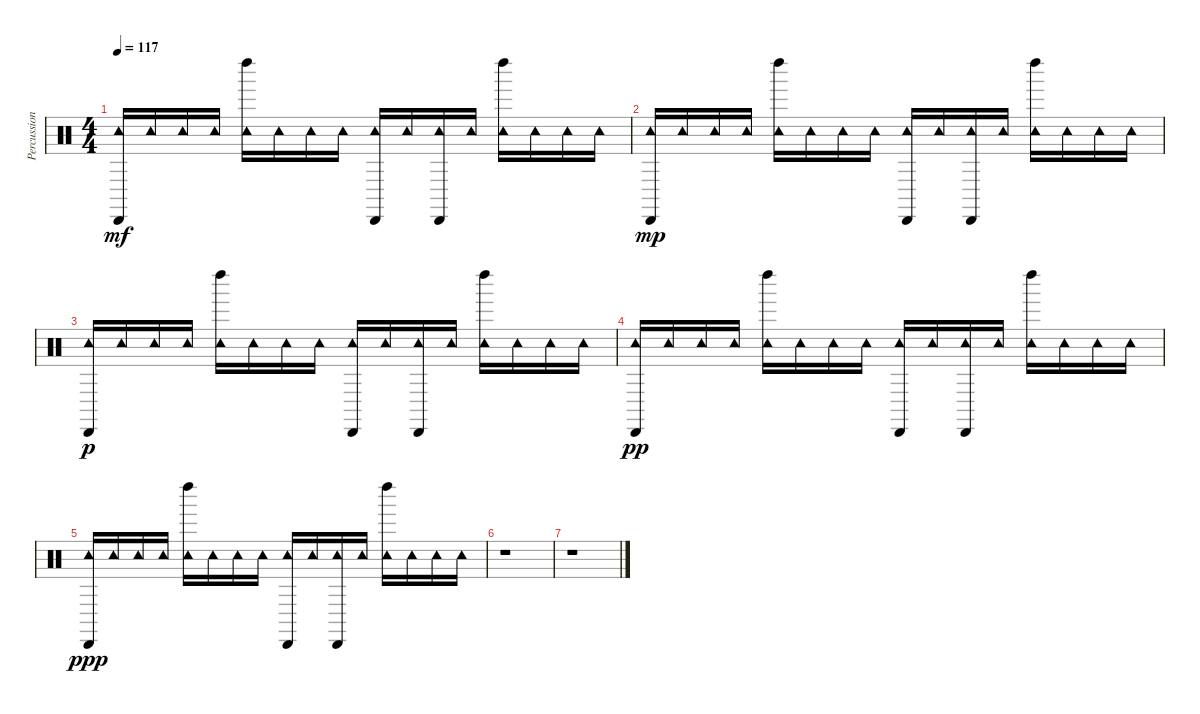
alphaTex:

\track ("Percussion" "Percussion") {instrument percussion}
\staff {score}
\articulation defaults
\ts (4 4)
\tempo 117
\clef neutral
\ks c
("Tambourine (hit)" "Cabasa (hit)").16{dy mf} "Tambourine (hit)".16 "Tambourine (hit)".16 "Tambourine (hit)".16 ("Tambourine (hit)" "Left Maraca (hit)").16 "Tambourine (hit)".16 "Tambourine (hit)".16 "Tambourine (hit)".16 ("Tambourine (hit)" "Cabasa (hit)").16 "Tambourine (hit)".16 ("Tambourine (hit)" "Cabasa (hit)").16 "Tambourine (hit)".16 ("Tambourine (hit)" "Left Maraca (hit)").16 "Tambourine (hit)".16 "Tambourine (hit)".16 "Tambourine (hit)".16 |
("Tambourine (hit)" "Cabasa (hit)").16{dy mp} "Tambourine (hit)".16 "Tambourine (hit)".16 "Tambourine (hit)".16 ("Tambourine (hit)" "Left Maraca (hit)").16 "Tambourine (hit)".16 "Tambourine (hit)".16 "Tambourine (hit)".16 ("Tambourine (hit)" "Cabasa (hit)").16 "Tambourine (hit)".16 ("Tambourine (hit)" "Cabasa (hit)").16 "Tambourine (hit)".16 ("Tambourine (hit)" "Left Maraca (hit)").16 "Tambourine (hit)".16 "Tambourine (hit)".16 "Tambourine (hit)".16 |
("Tambourine (hit)" "Cabasa (hit)").16{dy p} "Tambourine (hit)".16 "Tambourine (hit)".16 "Tambourine (hit)".16 ("Tambourine (hit)" "Left Maraca (hit)").16 "Tambourine (hit)".16 "Tambourine (hit)".16 "Tambourine (hit)".16 ("Tambourine (hit)" "Cabasa (hit)").16 "Tambourine (hit)".16 ("Tambourine (hit)" "Cabasa (hit)").16 "Tambourine (hit)".16 ("Tambourine (hit)" "Left Maraca (hit)").16 "Tambourine (hit)".16 "Tambourine (hit)".16 "Tambourine (hit)".16 |
("Tambourine (hit)" "Cabasa (hit)").16{dy pp} "Tambourine (hit)".16 "Tambourine (hit)".16 "Tambourine (hit)".16 ("Tambourine (hit)" "Left Maraca (hit)").16 "Tambourine (hit)".16 "Tambourine (hit)".16 "Tambourine (hit)".16 ("Tambourine (hit)" "Cabasa (hit)").16 "Tambourine (hit)".16 ("Tambourine (hit)" "Cabasa (hit)").16 "Tambourine (hit)".16 ("Tambourine (hit)" "Left Maraca (hit)").16 "Tambourine (hit)".16 "Tambourine (hit)".16 "Tambourine (hit)".16 |
("Tambourine (hit)" "Cabasa (hit)").16{dy ppp} "Tambourine (hit)".16 "Tambourine (hit)".16 "Tambourine (hit)".16 ("Tambourine (hit)" "Left Maraca (hit)").16 "Tambourine (hit)".16 "Tambourine (hit)".16 "Tambourine (hit)".16 ("Tambourine (hit)" "Cabasa (hit)").16 "Tambourine (hit)".16 ("Tambourine (hit)" "Cabasa (hit)").16 "Tambourine (hit)".16 ("Tambourine (hit)" "Left Maraca (hit)").16 "Tambourine (hit)".16 "Tambourine (hit)".16 "Tambourine (hit)".16 |
r.1 |
r.1
